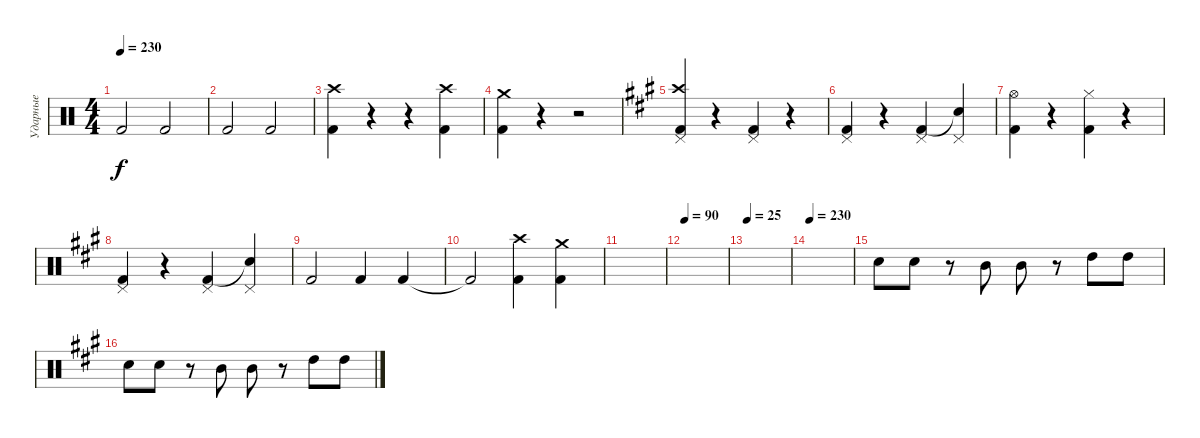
\track ("Ударные" "Ударные") {instrument percussion}
\staff {score}
\articulation defaults
\ts (4 4)
\tempo 230
\clef neutral
\ks c "Kick (hit) 2".2{dy f} "Kick (hit) 2".2
|
"Kick (hit) 2".2 "Kick (hit) 2".2 |
("Crash high (hit)" "Kick (hit) 2").4 r.4 r.4 ("Crash high (hit)" "Kick (hit) 2").4 |
("Crash medium (hit)" "Kick (hit) 2").4 r.4 r.2 |
\ks a
("Pedal Hi-Hat (hit)" "Crash high (hit)" "Kick (hit) 2").4 r.4 ("Pedal Hi-Hat (hit)" "Kick (hit) 2").4 r.4 |
("Pedal Hi-Hat (hit)" "Kick (hit) 2").4 r.4 ("Pedal Hi-Hat (hit)" "Kick (hit) 2").4 ("Pedal Hi-Hat (hit)" "Electric Snare (hit)"{t}).4 |
("Hi-Hat (open)" "Kick (hit) 2").4 r.4 ("Hi-Hat (closed)" "Kick (hit) 2").4 r.4 |
("Pedal Hi-Hat (hit)" "Kick (hit) 2").4 r.4 ("Pedal Hi-Hat (hit)" "Kick (hit) 2").4 ("Pedal Hi-Hat (hit)" "Electric Snare (hit)"{t}).4 |
"Kick (hit) 2".2 "Kick (hit) 2".4 "Kick (hit) 2".4 |
"Kick (hit) 2"{t}.2 ("Crash high (hit)" "Kick (hit) 2").4 ("Crash medium (hit)" "Kick (hit) 2").4 |
|
\tempo 90
|
\tempo 25
|
\tempo 230
|
"Electric Snare (hit)".8 "Electric Snare (hit)".8 r.8 "Mid Tom (hit)".8 "Mid Tom (hit)".8 r.8 "High Tom (hit)".8 "High Tom (hit)".8 |
"Electric Snare (hit)".8 "Electric Snare (hit)".8 r.8 "Mid Tom (hit)".8 "Mid Tom (hit)".8 r.8 "High Tom (hit)".8 "High Tom (hit)".8
